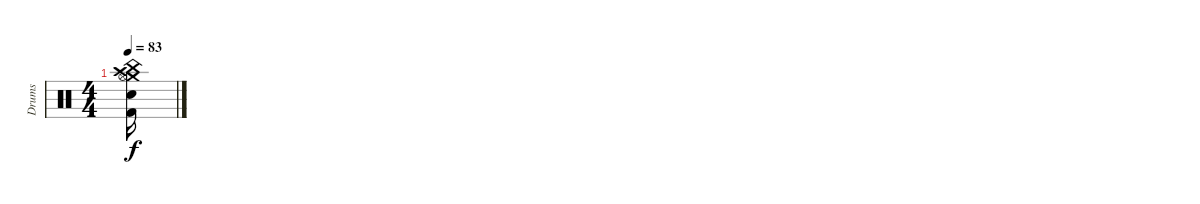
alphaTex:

\track ("Drums" "Drums") {instrument percussion}
\staff {score}
\articulation defaults
\ts (4 4)
\tempo 83
\clef neutral
\ks c
("Crash medium (hit)" "Electric Snare (hit)" "China (hit)" "Crash high (hit)" "Hi-Hat (open)" "Kick (hit) 2").16{dy f}
